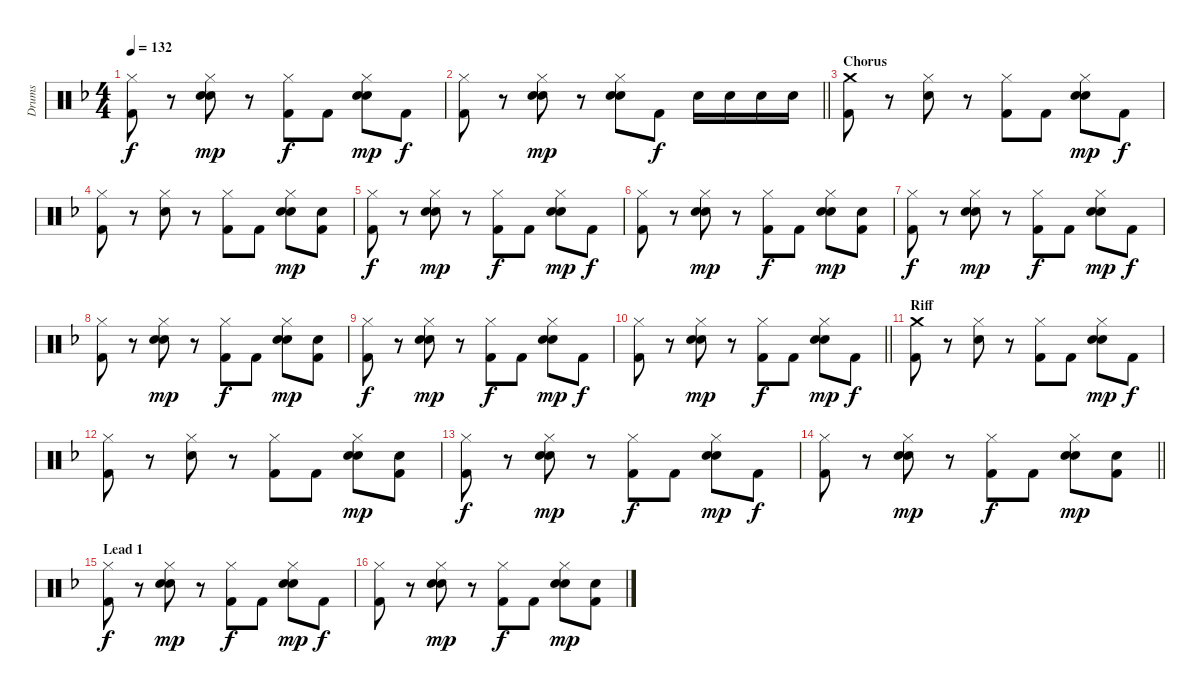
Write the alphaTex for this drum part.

\track ("Drums" "Drums") {instrument percussion}
\staff {score}
\articulation defaults
\ts (4 4)
\tempo 132
\clef neutral
\ks f
("Hi-Hat (closed)" "Kick (hit) 2").8{dy f} r.8 ("Hi-Hat (closed)" "Hand Clap (hit)" "Snare (hit) 2").8{dy mp} r.8 ("Hi-Hat (closed)" "Kick (hit) 2").8{dy f} "Kick (hit) 2".8 ("Hi-Hat (closed)" "Hand Clap (hit)" "Snare (hit) 2").8{dy mp} "Kick (hit) 2".8{dy f} |
\barLineRight lightlight
("Hi-Hat (closed)" "Kick (hit) 2").8 r.8 ("Hi-Hat (closed)" "Hand Clap (hit)" "Snare (hit) 2").8{dy mp} r.8 ("Hi-Hat (closed)" "Hand Clap (hit)" "Snare (hit) 2").8 "Kick (hit) 2".8{dy f} "Snare (hit) 2".16 "Snare (hit) 2".16 "Snare (hit) 2".16 "Snare (hit) 2".16 |
\section ("" "Chorus")
("Crash medium (hit)" "Kick (hit) 2").8 r.8 ("Hi-Hat (closed)" "Snare (hit) 2").8 r.8 ("Hi-Hat (closed)" "Kick (hit) 2").8 "Kick (hit) 2".8 ("Hi-Hat (closed)" "Hand Clap (hit)" "Snare (hit) 2").8{dy mp} "Kick (hit) 2".8{dy f} |
("Hi-Hat (closed)" "Kick (hit) 2").8 r.8 ("Hi-Hat (closed)" "Snare (hit) 2").8 r.8 ("Hi-Hat (closed)" "Kick (hit) 2").8 "Kick (hit) 2".8 ("Hi-Hat (closed)" "Hand Clap (hit)" "Snare (hit) 2").8{dy mp} ("Hand Clap (hit)" "Kick (hit) 2").8 |
("Hi-Hat (closed)" "Kick (hit) 2").8{dy f} r.8 ("Hi-Hat (closed)" "Hand Clap (hit)" "Snare (hit) 2").8{dy mp} r.8 ("Hi-Hat (closed)" "Kick (hit) 2").8{dy f} "Kick (hit) 2".8 ("Hi-Hat (closed)" "Hand Clap (hit)" "Snare (hit) 2").8{dy mp} "Kick (hit) 2".8{dy f} |
("Hi-Hat (closed)" "Kick (hit) 2").8 r.8 ("Hi-Hat (closed)" "Hand Clap (hit)" "Snare (hit) 2").8{dy mp} r.8 ("Hi-Hat (closed)" "Kick (hit) 2").8{dy f} "Kick (hit) 2".8 ("Hi-Hat (closed)" "Hand Clap (hit)" "Snare (hit) 2").8{dy mp} ("Hand Clap (hit)" "Kick (hit) 2").8 |
("Hi-Hat (closed)" "Kick (hit) 2").8{dy f} r.8 ("Hi-Hat (closed)" "Hand Clap (hit)" "Snare (hit) 2").8{dy mp} r.8 ("Hi-Hat (closed)" "Kick (hit) 2").8{dy f} "Kick (hit) 2".8 ("Hi-Hat (closed)" "Hand Clap (hit)" "Snare (hit) 2").8{dy mp} "Kick (hit) 2".8{dy f} |
("Hi-Hat (closed)" "Kick (hit) 2").8 r.8 ("Hi-Hat (closed)" "Hand Clap (hit)" "Snare (hit) 2").8{dy mp} r.8 ("Hi-Hat (closed)" "Kick (hit) 2").8{dy f} "Kick (hit) 2".8 ("Hi-Hat (closed)" "Hand Clap (hit)" "Snare (hit) 2").8{dy mp} ("Hand Clap (hit)" "Kick (hit) 2").8 |
("Hi-Hat (closed)" "Kick (hit) 2").8{dy f} r.8 ("Hi-Hat (closed)" "Hand Clap (hit)" "Snare (hit) 2").8{dy mp} r.8 ("Hi-Hat (closed)" "Kick (hit) 2").8{dy f} "Kick (hit) 2".8 ("Hi-Hat (closed)" "Hand Clap (hit)" "Snare (hit) 2").8{dy mp} "Kick (hit) 2".8{dy f} |
\barLineRight lightlight
("Hi-Hat (closed)" "Kick (hit) 2").8 r.8 ("Hi-Hat (closed)" "Hand Clap (hit)" "Snare (hit) 2").8{dy mp} r.8 ("Hi-Hat (closed)" "Kick (hit) 2").8{dy f} "Kick (hit) 2".8 ("Hi-Hat (closed)" "Hand Clap (hit)" "Snare (hit) 2").8{dy mp} "Kick (hit) 2".8{dy f} |
\section ("" "Riff")
("Crash medium (hit)" "Kick (hit) 2").8 r.8 ("Hi-Hat (closed)" "Snare (hit) 2").8 r.8 ("Hi-Hat (closed)" "Kick (hit) 2").8 "Kick (hit) 2".8 ("Hi-Hat (closed)" "Hand Clap (hit)" "Snare (hit) 2").8{dy mp} "Kick (hit) 2".8{dy f} |
("Hi-Hat (closed)" "Kick (hit) 2").8 r.8 ("Hi-Hat (closed)" "Snare (hit) 2").8 r.8 ("Hi-Hat (closed)" "Kick (hit) 2").8 "Kick (hit) 2".8 ("Hi-Hat (closed)" "Hand Clap (hit)" "Snare (hit) 2").8{dy mp} ("Hand Clap (hit)" "Kick (hit) 2").8 |
("Hi-Hat (closed)" "Kick (hit) 2").8{dy f} r.8 ("Hi-Hat (closed)" "Hand Clap (hit)" "Snare (hit) 2").8{dy mp} r.8 ("Hi-Hat (closed)" "Kick (hit) 2").8{dy f} "Kick (hit) 2".8 ("Hi-Hat (closed)" "Hand Clap (hit)" "Snare (hit) 2").8{dy mp} "Kick (hit) 2".8{dy f} |
\barLineRight lightlight
("Hi-Hat (closed)" "Kick (hit) 2").8 r.8 ("Hi-Hat (closed)" "Hand Clap (hit)" "Snare (hit) 2").8{dy mp} r.8 ("Hi-Hat (closed)" "Kick (hit) 2").8{dy f} "Kick (hit) 2".8 ("Hi-Hat (closed)" "Hand Clap (hit)" "Snare (hit) 2").8{dy mp} ("Hand Clap (hit)" "Kick (hit) 2").8 |
\section ("" "Lead 1")
("Hi-Hat (closed)" "Kick (hit) 2").8{dy f} r.8 ("Hi-Hat (closed)" "Hand Clap (hit)" "Snare (hit) 2").8{dy mp} r.8 ("Hi-Hat (closed)" "Kick (hit) 2").8{dy f} "Kick (hit) 2".8 ("Hi-Hat (closed)" "Hand Clap (hit)" "Snare (hit) 2").8{dy mp} "Kick (hit) 2".8{dy f} |
("Hi-Hat (closed)" "Kick (hit) 2").8 r.8 ("Hi-Hat (closed)" "Hand Clap (hit)" "Snare (hit) 2").8{dy mp} r.8 ("Hi-Hat (closed)" "Kick (hit) 2").8{dy f} "Kick (hit) 2".8 ("Hi-Hat (closed)" "Hand Clap (hit)" "Snare (hit) 2").8{dy mp} ("Hand Clap (hit)" "Kick (hit) 2").8
